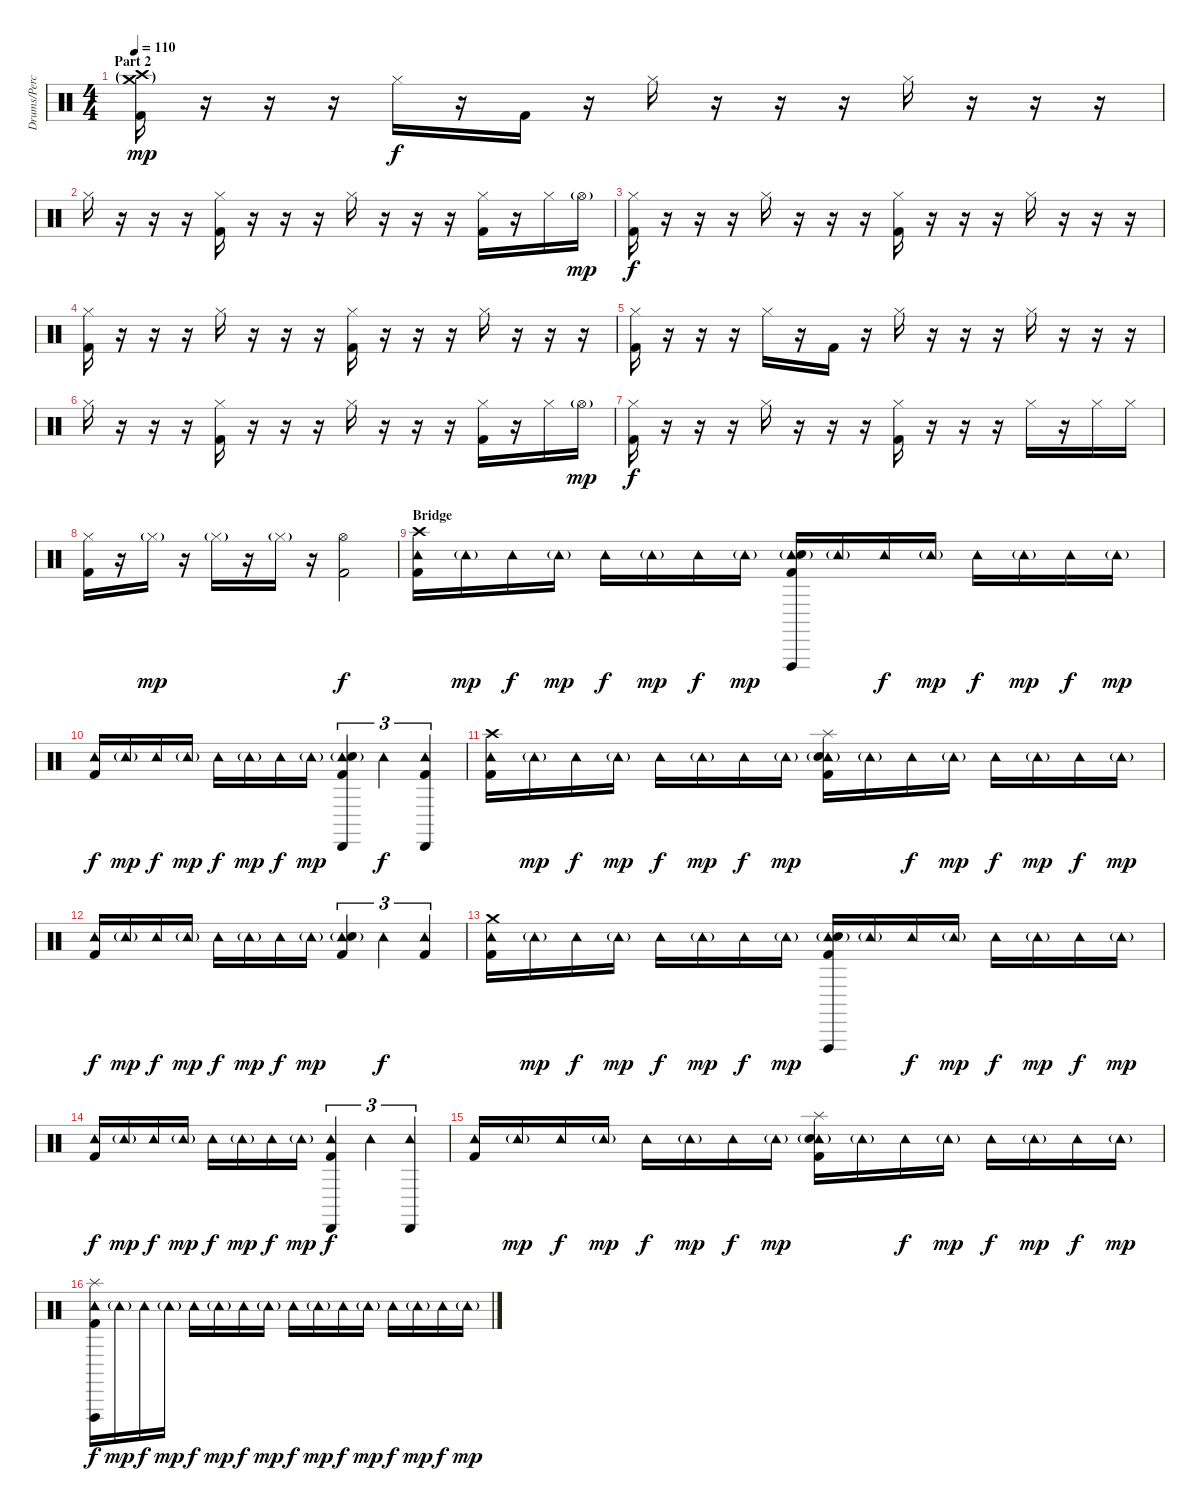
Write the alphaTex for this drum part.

\track ("Drums/Percussions" "Drums/Perc") {instrument percussion}
\staff {score}
\articulation defaults
\ts (4 4)
\section ("" "Part 2")
\tempo 110
\clef neutral
\ks c
("Crash high (hit)"{g} "Crash medium (hit)"{g} "Kick (hit) 2").16{dy mp} r.16 r.16 r.16 "Hi-Hat (closed)".16{dy f} r.16 "Kick (hit) 2".16 r.16 "Hi-Hat (closed)".16 r.16 r.16 r.16 "Hi-Hat (closed)".16 r.16 r.16 r.16 |
"Hi-Hat (closed)".16 r.16 r.16 r.16 ("Hi-Hat (closed)" "Kick (hit) 2").16 r.16 r.16 r.16 "Hi-Hat (closed)".16 r.16 r.16 r.16 ("Hi-Hat (closed)" "Kick (hit) 2").16 r.16 "Hi-Hat (closed)".16 "Hi-Hat (open)"{g}.16{dy mp} |
("Hi-Hat (closed)" "Kick (hit) 2").16{dy f} r.16 r.16 r.16 "Hi-Hat (closed)".16 r.16 r.16 r.16 ("Hi-Hat (closed)" "Kick (hit) 2").16 r.16 r.16 r.16 "Hi-Hat (closed)".16 r.16 r.16 r.16 |
("Hi-Hat (closed)" "Kick (hit) 2").16 r.16 r.16 r.16 "Hi-Hat (closed)".16 r.16 r.16 r.16 ("Hi-Hat (closed)" "Kick (hit) 2").16 r.16 r.16 r.16 "Hi-Hat (closed)".16 r.16 r.16 r.16 |
("Hi-Hat (closed)" "Kick (hit) 2").16 r.16 r.16 r.16 "Hi-Hat (closed)".16 r.16 "Kick (hit) 2".16 r.16 "Hi-Hat (closed)".16 r.16 r.16 r.16 "Hi-Hat (closed)".16 r.16 r.16 r.16 |
"Hi-Hat (closed)".16 r.16 r.16 r.16 ("Hi-Hat (closed)" "Kick (hit) 2").16 r.16 r.16 r.16 "Hi-Hat (closed)".16 r.16 r.16 r.16 ("Hi-Hat (closed)" "Kick (hit) 2").16 r.16 "Hi-Hat (closed)".16 "Hi-Hat (open)"{g}.16{dy mp} |
("Hi-Hat (closed)" "Kick (hit) 2").16{dy f} r.16 r.16 r.16 "Hi-Hat (closed)".16 r.16 r.16 r.16 ("Hi-Hat (closed)" "Kick (hit) 2").16 r.16 r.16 r.16 "Hi-Hat (closed)".16 r.16 "Hi-Hat (closed)".16 "Hi-Hat (closed)".16 |
("Hi-Hat (closed)" "Kick (hit) 2").16 r.16 "Hi-Hat (closed)"{g}.16{dy mp} r.16 "Hi-Hat (closed)"{g}.16 r.16 "Hi-Hat (closed)"{g}.16 r.16 ("Hi-Hat (open)" "Kick (hit) 2").2{dy f} |
\section ("" "Bridge")
("Tambourine (hit)" "Crash high (hit)" "Kick (hit) 2").16 "Tambourine (hit)"{g}.16{dy mp} "Tambourine (hit)".16{dy f} "Tambourine (hit)"{g}.16{dy mp} "Tambourine (hit)".16{dy f} "Tambourine (hit)"{g}.16{dy mp} "Tambourine (hit)".16{dy f} "Tambourine (hit)"{g}.16{dy mp} ("Tambourine (hit)" "Vibraslap (hit)" "Snare (hit) 2"{g} "Kick (hit) 2").16 "Tambourine (hit)"{g}.16 "Tambourine (hit)".16{dy f} "Tambourine (hit)"{g}.16{dy mp} "Tambourine (hit)".16{dy f} "Tambourine (hit)"{g}.16{dy mp} "Tambourine (hit)".16{dy f} "Tambourine (hit)"{g}.16{dy mp} |
("Tambourine (hit)" "Kick (hit) 2").16{dy f} "Tambourine (hit)"{g}.16{dy mp} "Tambourine (hit)".16{dy f} "Tambourine (hit)"{g}.16{dy mp} "Tambourine (hit)".16{dy f} "Tambourine (hit)"{g}.16{dy mp} "Tambourine (hit)".16{dy f} "Tambourine (hit)"{g}.16{dy mp} ("Tambourine (hit)" "Cabasa (hit)" "Snare (hit) 2"{g} "Kick (hit) 2").4{tu (3 2)} "Tambourine (hit)".4{tu (3 2) dy f} ("Tambourine (hit)" "Cabasa (hit)" "Kick (hit) 2").4{tu (3 2)} |
("Tambourine (hit)" "Crash high (hit)" "Kick (hit) 2").16 "Tambourine (hit)"{g}.16{dy mp} "Tambourine (hit)".16{dy f} "Tambourine (hit)"{g}.16{dy mp} "Tambourine (hit)".16{dy f} "Tambourine (hit)"{g}.16{dy mp} "Tambourine (hit)".16{dy f} "Tambourine (hit)"{g}.16{dy mp} ("Tambourine (hit)" "Splash (hit)" "Snare (hit) 2"{g} "Kick (hit) 2").16 "Tambourine (hit)"{g}.16 "Tambourine (hit)".16{dy f} "Tambourine (hit)"{g}.16{dy mp} "Tambourine (hit)".16{dy f} "Tambourine (hit)"{g}.16{dy mp} "Tambourine (hit)".16{dy f} "Tambourine (hit)"{g}.16{dy mp} |
("Tambourine (hit)" "Kick (hit) 2").16{dy f} "Tambourine (hit)"{g}.16{dy mp} "Tambourine (hit)".16{dy f} "Tambourine (hit)"{g}.16{dy mp} "Tambourine (hit)".16{dy f} "Tambourine (hit)"{g}.16{dy mp} "Tambourine (hit)".16{dy f} "Tambourine (hit)"{g}.16{dy mp} ("Tambourine (hit)" "Snare (hit) 2"{g} "Kick (hit) 2").4{tu (3 2)} "Tambourine (hit)".4{tu (3 2) dy f} ("Tambourine (hit)" "Kick (hit) 2").4{tu (3 2)} |
("Tambourine (hit)" "Crash medium (hit)" "Kick (hit) 2").16 "Tambourine (hit)"{g}.16{dy mp} "Tambourine (hit)".16{dy f} "Tambourine (hit)"{g}.16{dy mp} "Tambourine (hit)".16{dy f} "Tambourine (hit)"{g}.16{dy mp} "Tambourine (hit)".16{dy f} "Tambourine (hit)"{g}.16{dy mp} ("Tambourine (hit)" "Snare (hit) 2"{g} "Vibraslap (hit)" "Kick (hit) 2").16 "Tambourine (hit)"{g}.16 "Tambourine (hit)".16{dy f} "Tambourine (hit)"{g}.16{dy mp} "Tambourine (hit)".16{dy f} "Tambourine (hit)"{g}.16{dy mp} "Tambourine (hit)".16{dy f} "Tambourine (hit)"{g}.16{dy mp} |
("Tambourine (hit)" "Kick (hit) 2").16{dy f} "Tambourine (hit)"{g}.16{dy mp} "Tambourine (hit)".16{dy f} "Tambourine (hit)"{g}.16{dy mp} "Tambourine (hit)".16{dy f} "Tambourine (hit)"{g}.16{dy mp} "Tambourine (hit)".16{dy f} "Tambourine (hit)"{g}.16{dy mp} ("Tambourine (hit)" "Cabasa (hit)" "Kick (hit) 2").4{tu (3 2) dy f} "Tambourine (hit)".4{tu (3 2)} ("Tambourine (hit)" "Cabasa (hit)").4{tu (3 2)} |
("Tambourine (hit)" "Kick (hit) 2").16 "Tambourine (hit)"{g}.16{dy mp} "Tambourine (hit)".16{dy f} "Tambourine (hit)"{g}.16{dy mp} "Tambourine (hit)".16{dy f} "Tambourine (hit)"{g}.16{dy mp} "Tambourine (hit)".16{dy f} "Tambourine (hit)"{g}.16{dy mp} ("Tambourine (hit)" "Snare (hit) 2"{g} "Splash (hit)" "Kick (hit) 2").16 "Tambourine (hit)"{g}.16 "Tambourine (hit)".16{dy f} "Tambourine (hit)"{g}.16{dy mp} "Tambourine (hit)".16{dy f} "Tambourine (hit)"{g}.16{dy mp} "Tambourine (hit)".16{dy f} "Tambourine (hit)"{g}.16{dy mp} |
("Tambourine (hit)" "Vibraslap (hit)" "Splash (hit)" "Kick (hit) 2").16{dy f} "Tambourine (hit)"{g}.16{dy mp} "Tambourine (hit)".16{dy f} "Tambourine (hit)"{g}.16{dy mp} "Tambourine (hit)".16{dy f} "Tambourine (hit)"{g}.16{dy mp} "Tambourine (hit)".16{dy f} "Tambourine (hit)"{g}.16{dy mp} "Tambourine (hit)".16{dy f} "Tambourine (hit)"{g}.16{dy mp} "Tambourine (hit)".16{dy f} "Tambourine (hit)"{g}.16{dy mp} "Tambourine (hit)".16{dy f} "Tambourine (hit)"{g}.16{dy mp} "Tambourine (hit)".16{dy f} "Tambourine (hit)"{g}.16{dy mp}
